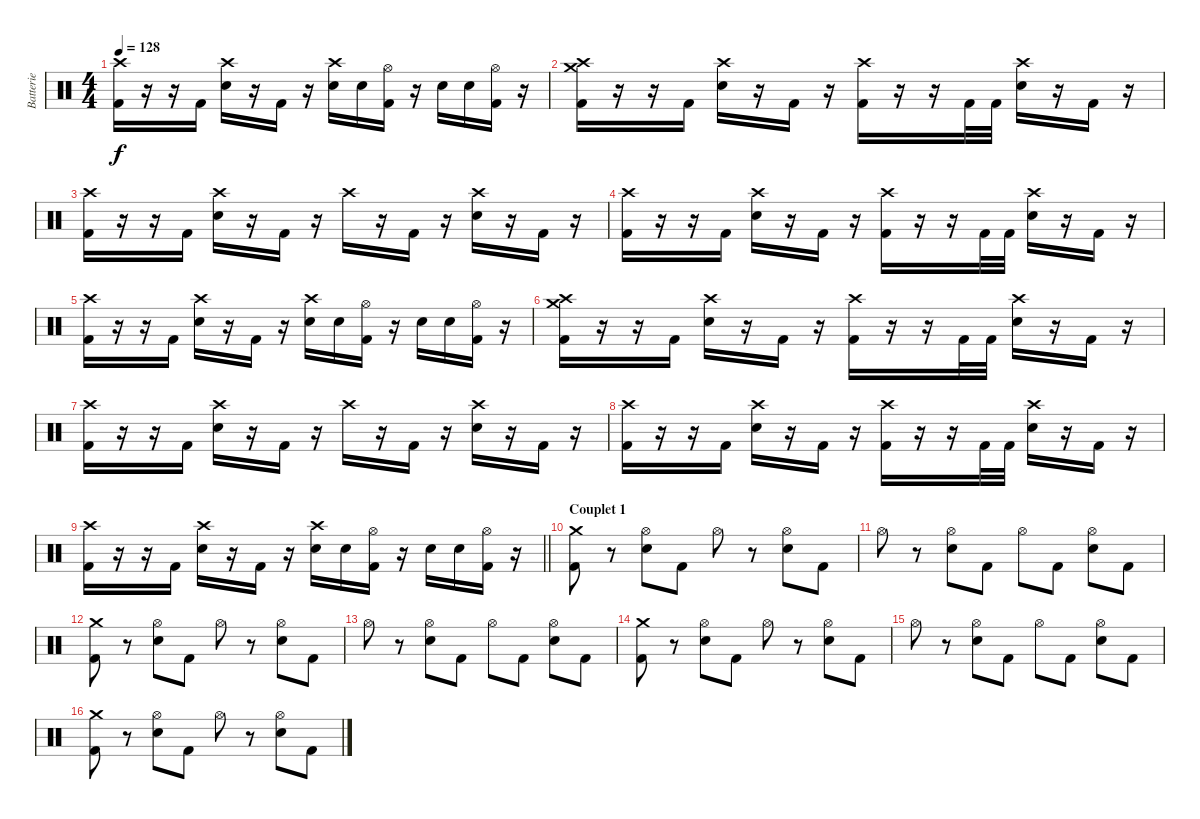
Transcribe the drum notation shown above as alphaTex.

\track ("Batterie" "Batterie") {instrument percussion}
\staff {score}
\articulation defaults
\ts (4 4)
\tempo 128
\clef neutral
\ks c
("Kick (hit) 2" "Crash high (hit)").16{dy f} r.16 r.16 "Kick (hit) 2".16 ("Electric Snare (hit)" "Crash high (hit)").16 r.16 "Kick (hit) 2".16 r.16 ("Electric Snare (hit)" "Crash high (hit)").16 "Electric Snare (hit)".16 ("Kick (hit) 2" "Hi-Hat (open)").16 r.16 "Electric Snare (hit)".16 "Electric Snare (hit)".16 ("Kick (hit) 2" "Hi-Hat (open)").16 r.16 |
("Kick (hit) 2" "Crash medium (hit)" "Crash high (hit)").16 r.16 r.16 "Kick (hit) 2".16 ("Electric Snare (hit)" "Crash high (hit)").16 r.16 "Kick (hit) 2".16 r.16 ("Kick (hit) 2" "Crash high (hit)").16 r.16 r.16 "Kick (hit) 2".32 "Kick (hit) 2".32 ("Electric Snare (hit)" "Crash high (hit)").16 r.16 "Kick (hit) 2".16 r.16 |
("Kick (hit) 2" "Crash high (hit)").16 r.16 r.16 "Kick (hit) 2".16 ("Electric Snare (hit)" "Crash high (hit)").16 r.16 "Kick (hit) 2".16 r.16 "Crash high (hit)".16 r.16 "Kick (hit) 2".16 r.16 ("Electric Snare (hit)" "Crash high (hit)").16 r.16 "Kick (hit) 2".16 r.16 |
("Kick (hit) 2" "Crash high (hit)").16 r.16 r.16 "Kick (hit) 2".16 ("Electric Snare (hit)" "Crash high (hit)").16 r.16 "Kick (hit) 2".16 r.16 ("Kick (hit) 2" "Crash high (hit)").16 r.16 r.16 "Kick (hit) 2".32 "Kick (hit) 2".32 ("Electric Snare (hit)" "Crash high (hit)").16 r.16 "Kick (hit) 2".16 r.16 |
("Kick (hit) 2" "Crash high (hit)").16 r.16 r.16 "Kick (hit) 2".16 ("Electric Snare (hit)" "Crash high (hit)").16 r.16 "Kick (hit) 2".16 r.16 ("Electric Snare (hit)" "Crash high (hit)").16 "Electric Snare (hit)".16 ("Kick (hit) 2" "Hi-Hat (open)").16 r.16 "Electric Snare (hit)".16 "Electric Snare (hit)".16 ("Kick (hit) 2" "Hi-Hat (open)").16 r.16 |
("Kick (hit) 2" "Crash medium (hit)" "Crash high (hit)").16 r.16 r.16 "Kick (hit) 2".16 ("Electric Snare (hit)" "Crash high (hit)").16 r.16 "Kick (hit) 2".16 r.16 ("Kick (hit) 2" "Crash high (hit)").16 r.16 r.16 "Kick (hit) 2".32 "Kick (hit) 2".32 ("Electric Snare (hit)" "Crash high (hit)").16 r.16 "Kick (hit) 2".16 r.16 |
("Kick (hit) 2" "Crash high (hit)").16 r.16 r.16 "Kick (hit) 2".16 ("Electric Snare (hit)" "Crash high (hit)").16 r.16 "Kick (hit) 2".16 r.16 "Crash high (hit)".16 r.16 "Kick (hit) 2".16 r.16 ("Electric Snare (hit)" "Crash high (hit)").16 r.16 "Kick (hit) 2".16 r.16 |
("Kick (hit) 2" "Crash high (hit)").16 r.16 r.16 "Kick (hit) 2".16 ("Electric Snare (hit)" "Crash high (hit)").16 r.16 "Kick (hit) 2".16 r.16 ("Kick (hit) 2" "Crash high (hit)").16 r.16 r.16 "Kick (hit) 2".32 "Kick (hit) 2".32 ("Electric Snare (hit)" "Crash high (hit)").16 r.16 "Kick (hit) 2".16 r.16 |
\barLineRight lightlight
("Kick (hit) 2" "Crash high (hit)").16 r.16 r.16 "Kick (hit) 2".16 ("Electric Snare (hit)" "Crash high (hit)").16 r.16 "Kick (hit) 2".16 r.16 ("Electric Snare (hit)" "Crash high (hit)").16 "Electric Snare (hit)".16 ("Kick (hit) 2" "Hi-Hat (open)").16 r.16 "Electric Snare (hit)".16 "Electric Snare (hit)".16 ("Kick (hit) 2" "Hi-Hat (open)").16 r.16 |
\section ("" "Couplet 1")
("Kick (hit) 2" "Crash medium (hit)").8 r.8 ("Electric Snare (hit)" "Hi-Hat (open)").8 "Kick (hit) 2".8 "Hi-Hat (open)".8 r.8 ("Electric Snare (hit)" "Hi-Hat (open)").8 "Kick (hit) 2".8 |
"Hi-Hat (open)".8 r.8 ("Electric Snare (hit)" "Hi-Hat (open)").8 "Kick (hit) 2".8 "Hi-Hat (open)".8 "Kick (hit) 2".8 ("Electric Snare (hit)" "Hi-Hat (open)").8 "Kick (hit) 2".8 |
("Kick (hit) 2" "Crash medium (hit)").8 r.8 ("Electric Snare (hit)" "Hi-Hat (open)").8 "Kick (hit) 2".8 "Hi-Hat (open)".8 r.8 ("Electric Snare (hit)" "Hi-Hat (open)").8 "Kick (hit) 2".8 |
"Hi-Hat (open)".8 r.8 ("Electric Snare (hit)" "Hi-Hat (open)").8 "Kick (hit) 2".8 "Hi-Hat (open)".8 "Kick (hit) 2".8 ("Electric Snare (hit)" "Hi-Hat (open)").8 "Kick (hit) 2".8 |
("Kick (hit) 2" "Crash medium (hit)").8 r.8 ("Electric Snare (hit)" "Hi-Hat (open)").8 "Kick (hit) 2".8 "Hi-Hat (open)".8 r.8 ("Electric Snare (hit)" "Hi-Hat (open)").8 "Kick (hit) 2".8 |
"Hi-Hat (open)".8 r.8 ("Electric Snare (hit)" "Hi-Hat (open)").8 "Kick (hit) 2".8 "Hi-Hat (open)".8 "Kick (hit) 2".8 ("Electric Snare (hit)" "Hi-Hat (open)").8 "Kick (hit) 2".8 |
("Kick (hit) 2" "Crash medium (hit)").8 r.8 ("Electric Snare (hit)" "Hi-Hat (open)").8 "Kick (hit) 2".8 "Hi-Hat (open)".8 r.8 ("Electric Snare (hit)" "Hi-Hat (open)").8 "Kick (hit) 2".8
